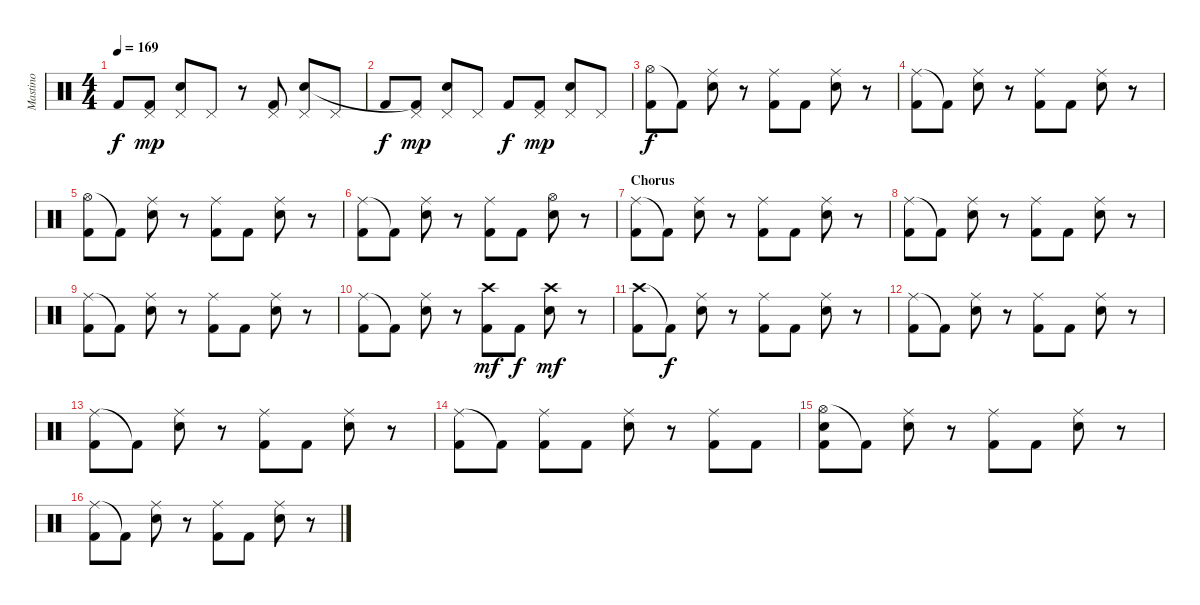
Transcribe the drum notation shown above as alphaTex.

\track ("Mastino" "Mastino") {instrument percussion}
\staff {score}
\articulation defaults
\ts (4 4)
\tempo 169
\clef neutral
\ks c "Kick (hit) 2".8{dy f}
("Pedal Hi-Hat (hit)" "Kick (hit) 2"{t}).8{dy mp} ("Pedal Hi-Hat (hit)" "Electric Snare (hit)").8 "Pedal Hi-Hat (hit)".8 r.8 ("Pedal Hi-Hat (hit)" "Kick (hit) 2").8 ("Pedal Hi-Hat (hit)" "Electric Snare (hit)").8 "Pedal Hi-Hat (hit)".8 |
"Kick (hit) 2".8{dy f} ("Pedal Hi-Hat (hit)" "Kick (hit) 2"{t}).8{dy mp} ("Pedal Hi-Hat (hit)" "Electric Snare (hit)").8 "Pedal Hi-Hat (hit)".8 "Kick (hit) 2".8{dy f} ("Pedal Hi-Hat (hit)" "Kick (hit) 2").8{dy mp} ("Pedal Hi-Hat (hit)" "Electric Snare (hit)").8 "Pedal Hi-Hat (hit)".8 |
("Hi-Hat (open)" "Kick (hit) 2").8{dy f} "Kick (hit) 2"{t}.8 ("Ride (middle)" "Electric Snare (hit)").8 r.8 ("Ride (middle)" "Kick (hit) 2").8 "Kick (hit) 2".8 ("Ride (middle)" "Electric Snare (hit)").8 r.8 |
("Ride (middle)" "Kick (hit) 2").8 "Kick (hit) 2"{t}.8 ("Ride (middle)" "Electric Snare (hit)").8 r.8 ("Ride (middle)" "Kick (hit) 2").8 "Kick (hit) 2".8 ("Ride (middle)" "Electric Snare (hit)").8 r.8 |
("Hi-Hat (open)" "Kick (hit) 2").8 "Kick (hit) 2"{t}.8 ("Ride (middle)" "Electric Snare (hit)").8 r.8 ("Ride (middle)" "Kick (hit) 2").8 "Kick (hit) 2".8 ("Ride (middle)" "Electric Snare (hit)").8 r.8 |
("Ride (middle)" "Kick (hit) 2").8 "Kick (hit) 2"{t}.8 ("Ride (middle)" "Electric Snare (hit)").8 r.8 ("Ride (middle)" "Kick (hit) 2").8 "Kick (hit) 2".8 ("Hi-Hat (open)" "Electric Snare (hit)").8 r.8 |
\section ("" "Chorus")
("Ride (middle)" "Kick (hit) 2").8 "Kick (hit) 2"{t}.8 ("Ride (middle)" "Electric Snare (hit)").8 r.8 ("Ride (middle)" "Kick (hit) 2").8 "Kick (hit) 2".8 ("Ride (middle)" "Electric Snare (hit)").8 r.8 |
("Ride (middle)" "Kick (hit) 2").8 "Kick (hit) 2"{t}.8 ("Ride (middle)" "Electric Snare (hit)").8 r.8 ("Ride (middle)" "Kick (hit) 2").8 "Kick (hit) 2".8 ("Ride (middle)" "Electric Snare (hit)").8 r.8 |
("Ride (middle)" "Kick (hit) 2").8 "Kick (hit) 2"{t}.8 ("Ride (middle)" "Electric Snare (hit)").8 r.8 ("Ride (middle)" "Kick (hit) 2").8 "Kick (hit) 2".8 ("Ride (middle)" "Electric Snare (hit)").8 r.8 |
("Ride (middle)" "Kick (hit) 2").8 "Kick (hit) 2"{t}.8 ("Ride (middle)" "Electric Snare (hit)").8 r.8 ("Crash high (hit)" "Kick (hit) 2").8{dy mf} "Kick (hit) 2".8{dy f} ("Crash high (hit)" "Electric Snare (hit)").8{dy mf} r.8 |
("Crash high (hit)" "Kick (hit) 2").8 "Kick (hit) 2"{t}.8{dy f} ("Ride (middle)" "Electric Snare (hit)").8 r.8 ("Ride (middle)" "Kick (hit) 2").8 "Kick (hit) 2".8 ("Ride (middle)" "Electric Snare (hit)").8 r.8 |
("Ride (middle)" "Kick (hit) 2").8 "Kick (hit) 2"{t}.8 ("Ride (middle)" "Electric Snare (hit)").8 r.8 ("Ride (middle)" "Kick (hit) 2").8 "Kick (hit) 2".8 ("Ride (middle)" "Electric Snare (hit)").8 r.8 |
("Ride (middle)" "Kick (hit) 2").8 "Kick (hit) 2"{t}.8 ("Ride (middle)" "Electric Snare (hit)").8 r.8 ("Ride (middle)" "Kick (hit) 2").8 "Kick (hit) 2".8 ("Ride (middle)" "Electric Snare (hit)").8 r.8 |
("Ride (middle)" "Kick (hit) 2").8 "Kick (hit) 2"{t}.8 ("Ride (middle)" "Kick (hit) 2").8 "Kick (hit) 2".8 ("Ride (middle)" "Electric Snare (hit)").8 r.8 ("Ride (middle)" "Kick (hit) 2").8 "Kick (hit) 2".8 |
("Hi-Hat (open)" "Electric Snare (hit)" "Kick (hit) 2").8 "Kick (hit) 2"{t}.8 ("Ride (middle)" "Electric Snare (hit)").8 r.8 ("Ride (middle)" "Kick (hit) 2").8 "Kick (hit) 2".8 ("Ride (middle)" "Electric Snare (hit)").8 r.8 |
("Ride (middle)" "Kick (hit) 2").8 "Kick (hit) 2"{t}.8 ("Ride (middle)" "Electric Snare (hit)").8 r.8 ("Ride (middle)" "Kick (hit) 2").8 "Kick (hit) 2".8 ("Ride (middle)" "Electric Snare (hit)").8 r.8
